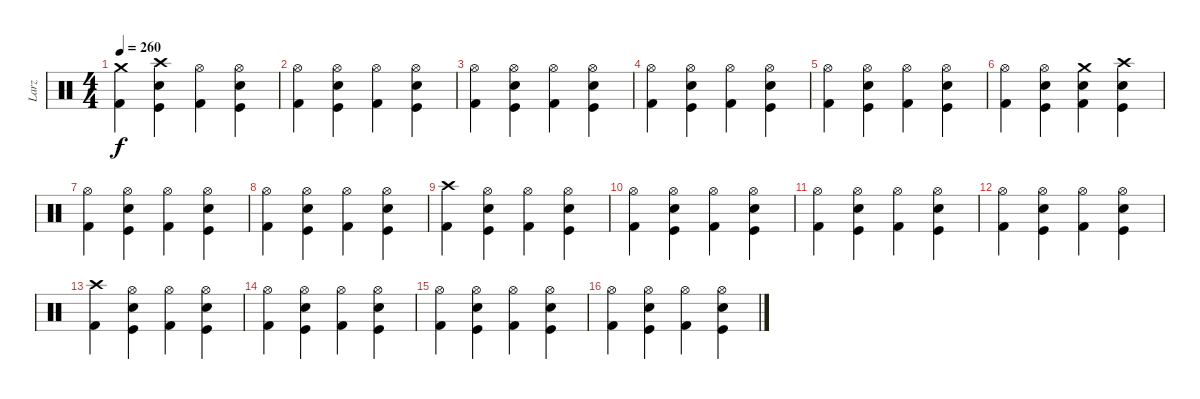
\track ("Larz" "Larz") {instrument percussion}
\staff {score}
\articulation defaults
\ts (4 4)
\tempo 260
\clef neutral
\ks c
("Crash medium (hit)" "Kick (hit) 2").4{dy f} ("Crash high (hit)" "Kick (hit)" "Electric Snare (hit)").4 ("Hi-Hat (open)" "Kick (hit) 2").4 ("Hi-Hat (open)" "Kick (hit)" "Electric Snare (hit)").4 |
("Hi-Hat (open)" "Kick (hit) 2").4 ("Hi-Hat (open)" "Kick (hit)" "Electric Snare (hit)").4 ("Hi-Hat (open)" "Kick (hit) 2").4 ("Hi-Hat (open)" "Kick (hit)" "Electric Snare (hit)").4 |
("Hi-Hat (open)" "Kick (hit) 2").4 ("Hi-Hat (open)" "Kick (hit)" "Electric Snare (hit)").4 ("Hi-Hat (open)" "Kick (hit) 2").4 ("Hi-Hat (open)" "Kick (hit)" "Electric Snare (hit)").4 |
("Hi-Hat (open)" "Kick (hit) 2").4 ("Hi-Hat (open)" "Kick (hit)" "Electric Snare (hit)").4 ("Hi-Hat (open)" "Kick (hit) 2").4 ("Hi-Hat (open)" "Kick (hit)" "Electric Snare (hit)").4 |
("Hi-Hat (open)" "Kick (hit) 2").4 ("Hi-Hat (open)" "Kick (hit)" "Electric Snare (hit)").4 ("Hi-Hat (open)" "Kick (hit) 2").4 ("Hi-Hat (open)" "Kick (hit)" "Electric Snare (hit)").4 |
("Hi-Hat (open)" "Kick (hit) 2").4 ("Hi-Hat (open)" "Kick (hit)" "Electric Snare (hit)").4 ("Crash medium (hit)" "Kick (hit) 2" "Electric Snare (hit)").4 ("Crash high (hit)" "Kick (hit)" "Electric Snare (hit)").4 |
("Hi-Hat (open)" "Kick (hit) 2").4 ("Hi-Hat (open)" "Kick (hit)" "Electric Snare (hit)").4 ("Hi-Hat (open)" "Kick (hit) 2").4 ("Hi-Hat (open)" "Kick (hit)" "Electric Snare (hit)").4 |
("Hi-Hat (open)" "Kick (hit) 2").4 ("Hi-Hat (open)" "Kick (hit)" "Electric Snare (hit)").4 ("Hi-Hat (open)" "Kick (hit) 2").4 ("Hi-Hat (open)" "Kick (hit)" "Electric Snare (hit)").4 |
("Crash high (hit)" "Kick (hit) 2").4 ("Hi-Hat (open)" "Kick (hit)" "Electric Snare (hit)").4 ("Hi-Hat (open)" "Kick (hit) 2").4 ("Hi-Hat (open)" "Kick (hit)" "Electric Snare (hit)").4 |
("Hi-Hat (open)" "Kick (hit) 2").4 ("Hi-Hat (open)" "Kick (hit)" "Electric Snare (hit)").4 ("Hi-Hat (open)" "Kick (hit) 2").4 ("Hi-Hat (open)" "Kick (hit)" "Electric Snare (hit)").4 |
("Hi-Hat (open)" "Kick (hit) 2").4 ("Hi-Hat (open)" "Kick (hit)" "Electric Snare (hit)").4 ("Hi-Hat (open)" "Kick (hit) 2").4 ("Hi-Hat (open)" "Kick (hit)" "Electric Snare (hit)").4 |
("Hi-Hat (open)" "Kick (hit) 2").4 ("Hi-Hat (open)" "Kick (hit)" "Electric Snare (hit)").4 ("Hi-Hat (open)" "Kick (hit) 2").4 ("Hi-Hat (open)" "Kick (hit)" "Electric Snare (hit)").4 |
("Crash high (hit)" "Kick (hit) 2").4 ("Hi-Hat (open)" "Kick (hit)" "Electric Snare (hit)").4 ("Hi-Hat (open)" "Kick (hit) 2").4 ("Hi-Hat (open)" "Kick (hit)" "Electric Snare (hit)").4 |
("Hi-Hat (open)" "Kick (hit) 2").4 ("Hi-Hat (open)" "Kick (hit)" "Electric Snare (hit)").4 ("Hi-Hat (open)" "Kick (hit) 2").4 ("Hi-Hat (open)" "Kick (hit)" "Electric Snare (hit)").4 |
("Hi-Hat (open)" "Kick (hit) 2").4 ("Hi-Hat (open)" "Kick (hit)" "Electric Snare (hit)").4 ("Hi-Hat (open)" "Kick (hit) 2").4 ("Hi-Hat (open)" "Kick (hit)" "Electric Snare (hit)").4 |
("Hi-Hat (open)" "Kick (hit) 2").4 ("Hi-Hat (open)" "Kick (hit)" "Electric Snare (hit)").4 ("Hi-Hat (open)" "Kick (hit) 2").4 ("Hi-Hat (open)" "Kick (hit)" "Electric Snare (hit)").4
